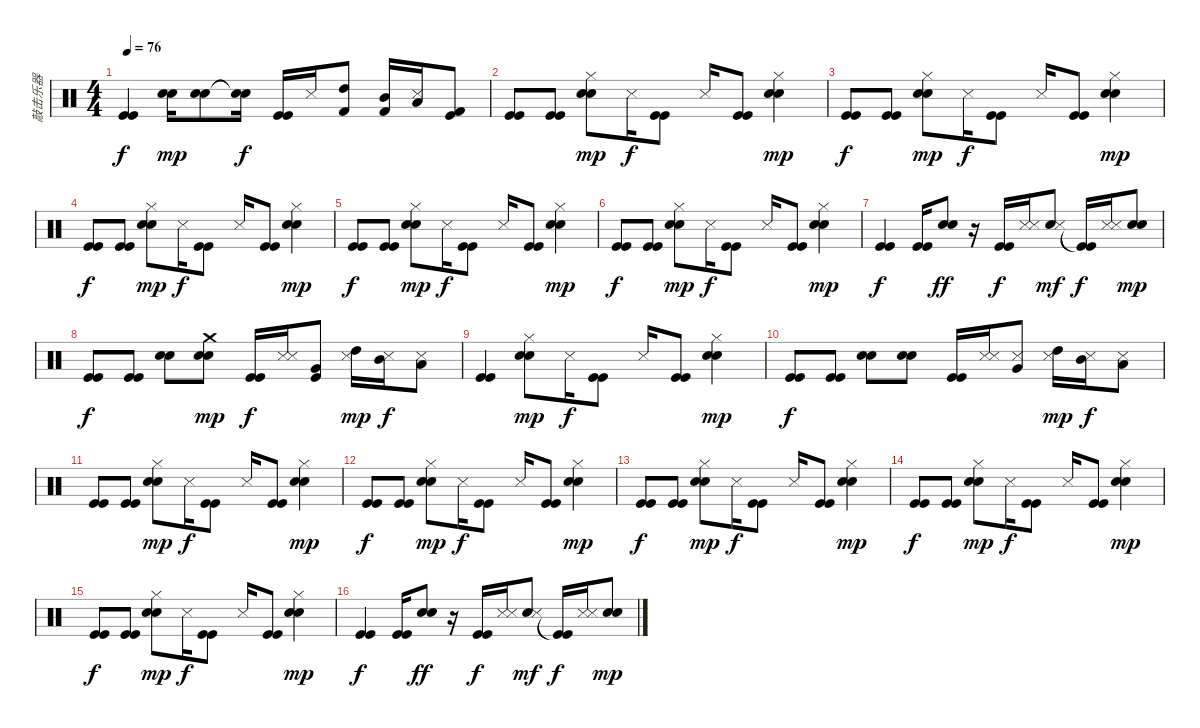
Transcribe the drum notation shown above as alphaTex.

\track ("敲击乐器" "敲击乐器") {instrument percussion}
\staff {score}
\articulation defaults
\ts (4 4)
\tempo 76
\clef neutral
\ks c
("Kick (hit)" "Kick (hit)").4{dy f} ("Electric Snare (hit)" "Metronome (bell)").16{dy mp} ("Electric Snare (hit)" "Metronome (bell)").8 ("Snare (hit)"{t} "Snare (hit)"{t}).16{dy f} ("Kick (hit)" "Kick (hit)").16 "Metronome (hit)".16 ("High Tom (hit)" "Kick (hit) 2").8 ("Mid Tom (hit)" "Kick (hit) 2").16 ("Low Tom (hit)" "Metronome (hit)").16 ("Kick (hit)" "Kick (hit) 2").8 |
("Kick (hit)" "Kick (hit)").8 ("Kick (hit)" "Kick (hit)").8 ("Electric Snare (hit)" "Metronome (bell)" "Hi-Hat (closed)").8{dy mp} "Metronome (hit)".16{dy f} ("Kick (hit)" "Kick (hit)").8 "Metronome (hit)".16 ("Kick (hit)" "Kick (hit)").8 ("Electric Snare (hit)" "Metronome (bell)" "Hi-Hat (closed)").4{dy mp} |
("Kick (hit)" "Kick (hit)").8{dy f} ("Kick (hit)" "Kick (hit)").8 ("Electric Snare (hit)" "Metronome (bell)" "Hi-Hat (closed)").8{dy mp} "Metronome (hit)".16{dy f} ("Kick (hit)" "Kick (hit)").8 "Metronome (hit)".16 ("Kick (hit)" "Kick (hit)").8 ("Electric Snare (hit)" "Metronome (bell)" "Hi-Hat (closed)").4{dy mp} |
("Kick (hit)" "Kick (hit)").8{dy f} ("Kick (hit)" "Kick (hit)").8 ("Electric Snare (hit)" "Metronome (bell)" "Hi-Hat (closed)").8{dy mp} "Metronome (hit)".16{dy f} ("Kick (hit)" "Kick (hit)").8 "Metronome (hit)".16 ("Kick (hit)" "Kick (hit)").8 ("Electric Snare (hit)" "Metronome (bell)" "Hi-Hat (closed)").4{dy mp} |
("Kick (hit)" "Kick (hit)").8{dy f} ("Kick (hit)" "Kick (hit)").8 ("Electric Snare (hit)" "Metronome (bell)" "Hi-Hat (closed)").8{dy mp} "Metronome (hit)".16{dy f} ("Kick (hit)" "Kick (hit)").8 "Metronome (hit)".16 ("Kick (hit)" "Kick (hit)").8 ("Electric Snare (hit)" "Metronome (bell)" "Hi-Hat (closed)").4{dy mp} |
("Kick (hit)" "Kick (hit)").8{dy f} ("Kick (hit)" "Kick (hit)").8 ("Electric Snare (hit)" "Metronome (bell)" "Hi-Hat (closed)").8{dy mp} "Metronome (hit)".16{dy f} ("Kick (hit)" "Kick (hit)").8 "Metronome (hit)".16 ("Kick (hit)" "Kick (hit)").8 ("Electric Snare (hit)" "Metronome (bell)" "Hi-Hat (closed)").4{dy mp} |
("Kick (hit)" "Kick (hit)").4{dy f} ("Kick (hit)" "Kick (hit)").16 ("Electric Snare (hit)" "Metronome (bell)").8{dy ff} r.16 ("Kick (hit)" "Kick (hit)").16{dy f} ("Metronome (hit)" "Metronome (hit)").16 ("Metronome (bell)" "Metronome (hit)").8{dy mf} ("Kick (hit)"{t} "Kick (hit)"{t}).16{dy f} ("Metronome (hit)" "Metronome (hit)").16 ("Electric Snare (hit)" "Metronome (bell)").8{dy mp} |
("Kick (hit)" "Kick (hit)").8{dy f} ("Kick (hit)" "Kick (hit)").8 ("Electric Snare (hit)" "Metronome (bell)").8 ("Electric Snare (hit)" "Metronome (bell)" "Crash medium (hit)").8{dy mp} ("Kick (hit)" "Kick (hit)").16{dy f} ("Metronome (hit)" "Metronome (hit)").16 ("Very Low Tom (hit)" "Kick (hit)").8 ("High Tom (hit)" "Metronome (hit)").16{dy mp} ("Mid Tom (hit)" "Metronome (hit)").16{dy f} ("Low Tom (hit)" "Metronome (hit)").8 |
("Kick (hit)" "Kick (hit)").4 ("Electric Snare (hit)" "Metronome (bell)" "Hi-Hat (closed)").8{dy mp} "Metronome (hit)".16{dy f} ("Kick (hit)" "Kick (hit)").8 "Metronome (hit)".16 ("Kick (hit)" "Kick (hit)").8 ("Electric Snare (hit)" "Metronome (bell)" "Hi-Hat (closed)").4{dy mp} |
("Kick (hit)" "Kick (hit)").8{dy f} ("Kick (hit)" "Kick (hit)").8 ("Electric Snare (hit)" "Metronome (bell)").8 ("Electric Snare (hit)" "Metronome (bell)").8 ("Kick (hit)" "Kick (hit)").16 ("Metronome (hit)" "Metronome (hit)").16 ("Very Low Tom (hit)" "Metronome (hit)").8 ("High Tom (hit)" "Metronome (hit)").16{dy mp} ("Mid Tom (hit)" "Metronome (hit)").16{dy f} ("Low Tom (hit)" "Metronome (hit)").8 |
("Kick (hit)" "Kick (hit)").8 ("Kick (hit)" "Kick (hit)").8 ("Electric Snare (hit)" "Metronome (bell)" "Hi-Hat (closed)").8{dy mp} "Metronome (hit)".16{dy f} ("Kick (hit)" "Kick (hit)").8 "Metronome (hit)".16 ("Kick (hit)" "Kick (hit)").8 ("Electric Snare (hit)" "Metronome (bell)" "Hi-Hat (closed)").4{dy mp} |
("Kick (hit)" "Kick (hit)").8{dy f} ("Kick (hit)" "Kick (hit)").8 ("Electric Snare (hit)" "Metronome (bell)" "Hi-Hat (closed)").8{dy mp} "Metronome (hit)".16{dy f} ("Kick (hit)" "Kick (hit)").8 "Metronome (hit)".16 ("Kick (hit)" "Kick (hit)").8 ("Electric Snare (hit)" "Metronome (bell)" "Hi-Hat (closed)").4{dy mp} |
("Kick (hit)" "Kick (hit)").8{dy f} ("Kick (hit)" "Kick (hit)").8 ("Electric Snare (hit)" "Metronome (bell)" "Hi-Hat (closed)").8{dy mp} "Metronome (hit)".16{dy f} ("Kick (hit)" "Kick (hit)").8 "Metronome (hit)".16 ("Kick (hit)" "Kick (hit)").8 ("Electric Snare (hit)" "Metronome (bell)" "Hi-Hat (closed)").4{dy mp} |
("Kick (hit)" "Kick (hit)").8{dy f} ("Kick (hit)" "Kick (hit)").8 ("Electric Snare (hit)" "Metronome (bell)" "Hi-Hat (closed)").8{dy mp} "Metronome (hit)".16{dy f} ("Kick (hit)" "Kick (hit)").8 "Metronome (hit)".16 ("Kick (hit)" "Kick (hit)").8 ("Electric Snare (hit)" "Metronome (bell)" "Hi-Hat (closed)").4{dy mp} |
("Kick (hit)" "Kick (hit)").8{dy f} ("Kick (hit)" "Kick (hit)").8 ("Electric Snare (hit)" "Metronome (bell)" "Hi-Hat (closed)").8{dy mp} "Metronome (hit)".16{dy f} ("Kick (hit)" "Kick (hit)").8 "Metronome (hit)".16 ("Kick (hit)" "Kick (hit)").8 ("Electric Snare (hit)" "Metronome (bell)" "Hi-Hat (closed)").4{dy mp} |
("Kick (hit)" "Kick (hit)").4{dy f} ("Kick (hit)" "Kick (hit)").16 ("Electric Snare (hit)" "Metronome (bell)").8{dy ff} r.16 ("Kick (hit)" "Kick (hit)").16{dy f} ("Metronome (hit)" "Metronome (hit)").16 ("Metronome (bell)" "Metronome (hit)").8{dy mf} ("Kick (hit)"{t} "Kick (hit)"{t}).16{dy f} ("Metronome (hit)" "Metronome (hit)").16 ("Electric Snare (hit)" "Metronome (bell)").8{dy mp}
